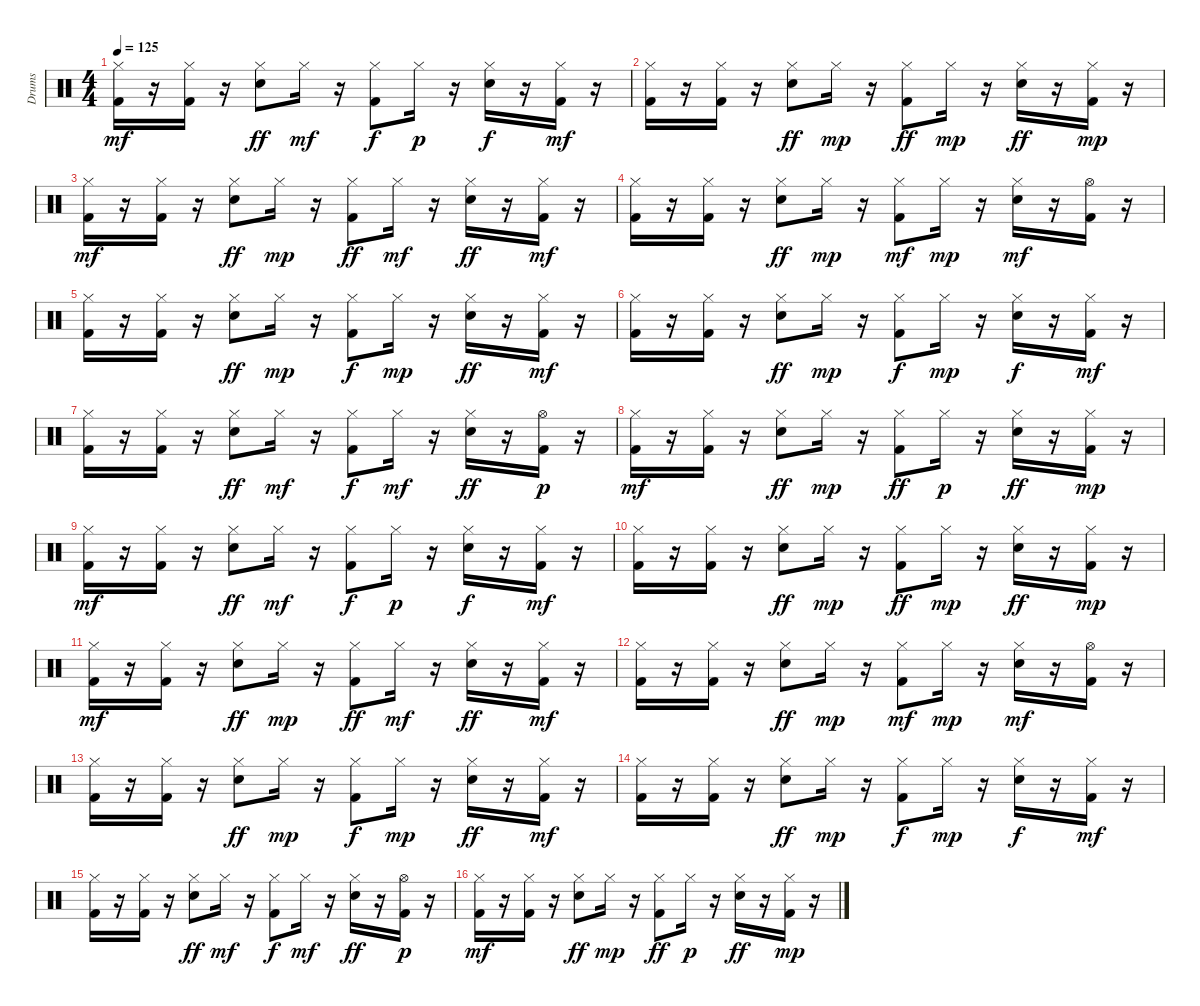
\track ("Drums" "Drums") {instrument percussion}
\staff {score}
\articulation defaults
\ts (4 4)
\tempo 125
\clef neutral
\ks c
("Hi-Hat (closed)" "Kick (hit) 2").16{dy mf} r.16 ("Hi-Hat (closed)" "Kick (hit) 2").16 r.16 ("Snare (hit) 2" "Hi-Hat (closed)").8{dy ff} "Hi-Hat (closed)".16{dy mf} r.16 ("Kick (hit) 2" "Hi-Hat (closed)").8{dy f} "Hi-Hat (closed)".16{dy p} r.16 ("Snare (hit) 2" "Hi-Hat (closed)").16{dy f} r.16 ("Hi-Hat (closed)" "Kick (hit) 2").16{dy mf} r.16 |
("Hi-Hat (closed)" "Kick (hit) 2").16 r.16 ("Hi-Hat (closed)" "Kick (hit) 2").16 r.16 ("Snare (hit) 2" "Hi-Hat (closed)").8{dy ff} "Hi-Hat (closed)".16{dy mp} r.16 ("Kick (hit) 2" "Hi-Hat (closed)").8{dy ff} "Hi-Hat (closed)".16{dy mp} r.16 ("Snare (hit) 2" "Hi-Hat (closed)").16{dy ff} r.16 ("Hi-Hat (closed)" "Kick (hit) 2").16{dy mp} r.16 |
("Hi-Hat (closed)" "Kick (hit) 2").16{dy mf} r.16 ("Hi-Hat (closed)" "Kick (hit) 2").16 r.16 ("Hi-Hat (closed)" "Snare (hit) 2").8{dy ff} "Hi-Hat (closed)".16{dy mp} r.16 ("Hi-Hat (closed)" "Kick (hit) 2").8{dy ff} "Hi-Hat (closed)".16{dy mf} r.16 ("Snare (hit) 2" "Hi-Hat (closed)").16{dy ff} r.16 ("Kick (hit) 2" "Hi-Hat (closed)").16{dy mf} r.16 |
("Hi-Hat (closed)" "Kick (hit) 2").16 r.16 ("Kick (hit) 2" "Hi-Hat (closed)").16 r.16 ("Hi-Hat (closed)" "Snare (hit) 2").8{dy ff} "Hi-Hat (closed)".16{dy mp} r.16 ("Kick (hit) 2" "Hi-Hat (closed)").8{dy mf} "Hi-Hat (closed)".16{dy mp} r.16 ("Snare (hit) 2" "Hi-Hat (closed)").16{dy mf} r.16 ("Hi-Hat (open)" "Kick (hit) 2").16 r.16 |
("Hi-Hat (closed)" "Kick (hit) 2").16 r.16 ("Hi-Hat (closed)" "Kick (hit) 2").16 r.16 ("Snare (hit) 2" "Hi-Hat (closed)").8{dy ff} "Hi-Hat (closed)".16{dy mp} r.16 ("Hi-Hat (closed)" "Kick (hit) 2").8{dy f} "Hi-Hat (closed)".16{dy mp} r.16 ("Hi-Hat (closed)" "Snare (hit) 2").16{dy ff} r.16 ("Hi-Hat (closed)" "Kick (hit) 2").16{dy mf} r.16 |
("Hi-Hat (closed)" "Kick (hit) 2").16 r.16 ("Hi-Hat (closed)" "Kick (hit) 2").16 r.16 ("Hi-Hat (closed)" "Snare (hit) 2").8{dy ff} "Hi-Hat (closed)".16{dy mp} r.16 ("Hi-Hat (closed)" "Kick (hit) 2").8{dy f} "Hi-Hat (closed)".16{dy mp} r.16 ("Snare (hit) 2" "Hi-Hat (closed)").16{dy f} r.16 ("Kick (hit) 2" "Hi-Hat (closed)").16{dy mf} r.16 |
("Hi-Hat (closed)" "Kick (hit) 2").16 r.16 ("Kick (hit) 2" "Hi-Hat (closed)").16 r.16 ("Snare (hit) 2" "Hi-Hat (closed)").8{dy ff} "Hi-Hat (closed)".16{dy mf} r.16 ("Kick (hit) 2" "Hi-Hat (closed)").8{dy f} "Hi-Hat (closed)".16{dy mf} r.16 ("Hi-Hat (closed)" "Snare (hit) 2").16{dy ff} r.16 ("Kick (hit) 2" "Hi-Hat (open)").16{dy p} r.16 |
("Hi-Hat (closed)" "Kick (hit) 2").16{dy mf} r.16 ("Kick (hit) 2" "Hi-Hat (closed)").16 r.16 ("Hi-Hat (closed)" "Snare (hit) 2").8{dy ff} "Hi-Hat (closed)".16{dy mp} r.16 ("Kick (hit) 2" "Hi-Hat (closed)").8{dy ff} "Hi-Hat (closed)".16{dy p} r.16 ("Hi-Hat (closed)" "Snare (hit) 2").16{dy ff} r.16 ("Hi-Hat (closed)" "Kick (hit) 2").16{dy mp} r.16 |
("Hi-Hat (closed)" "Kick (hit) 2").16{dy mf} r.16 ("Hi-Hat (closed)" "Kick (hit) 2").16 r.16 ("Snare (hit) 2" "Hi-Hat (closed)").8{dy ff} "Hi-Hat (closed)".16{dy mf} r.16 ("Kick (hit) 2" "Hi-Hat (closed)").8{dy f} "Hi-Hat (closed)".16{dy p} r.16 ("Snare (hit) 2" "Hi-Hat (closed)").16{dy f} r.16 ("Hi-Hat (closed)" "Kick (hit) 2").16{dy mf} r.16 |
("Hi-Hat (closed)" "Kick (hit) 2").16 r.16 ("Hi-Hat (closed)" "Kick (hit) 2").16 r.16 ("Snare (hit) 2" "Hi-Hat (closed)").8{dy ff} "Hi-Hat (closed)".16{dy mp} r.16 ("Kick (hit) 2" "Hi-Hat (closed)").8{dy ff} "Hi-Hat (closed)".16{dy mp} r.16 ("Snare (hit) 2" "Hi-Hat (closed)").16{dy ff} r.16 ("Hi-Hat (closed)" "Kick (hit) 2").16{dy mp} r.16 |
("Hi-Hat (closed)" "Kick (hit) 2").16{dy mf} r.16 ("Hi-Hat (closed)" "Kick (hit) 2").16 r.16 ("Hi-Hat (closed)" "Snare (hit) 2").8{dy ff} "Hi-Hat (closed)".16{dy mp} r.16 ("Hi-Hat (closed)" "Kick (hit) 2").8{dy ff} "Hi-Hat (closed)".16{dy mf} r.16 ("Snare (hit) 2" "Hi-Hat (closed)").16{dy ff} r.16 ("Kick (hit) 2" "Hi-Hat (closed)").16{dy mf} r.16 |
("Hi-Hat (closed)" "Kick (hit) 2").16 r.16 ("Kick (hit) 2" "Hi-Hat (closed)").16 r.16 ("Hi-Hat (closed)" "Snare (hit) 2").8{dy ff} "Hi-Hat (closed)".16{dy mp} r.16 ("Kick (hit) 2" "Hi-Hat (closed)").8{dy mf} "Hi-Hat (closed)".16{dy mp} r.16 ("Snare (hit) 2" "Hi-Hat (closed)").16{dy mf} r.16 ("Hi-Hat (open)" "Kick (hit) 2").16 r.16 |
("Hi-Hat (closed)" "Kick (hit) 2").16 r.16 ("Hi-Hat (closed)" "Kick (hit) 2").16 r.16 ("Snare (hit) 2" "Hi-Hat (closed)").8{dy ff} "Hi-Hat (closed)".16{dy mp} r.16 ("Hi-Hat (closed)" "Kick (hit) 2").8{dy f} "Hi-Hat (closed)".16{dy mp} r.16 ("Hi-Hat (closed)" "Snare (hit) 2").16{dy ff} r.16 ("Hi-Hat (closed)" "Kick (hit) 2").16{dy mf} r.16 |
("Hi-Hat (closed)" "Kick (hit) 2").16 r.16 ("Hi-Hat (closed)" "Kick (hit) 2").16 r.16 ("Hi-Hat (closed)" "Snare (hit) 2").8{dy ff} "Hi-Hat (closed)".16{dy mp} r.16 ("Hi-Hat (closed)" "Kick (hit) 2").8{dy f} "Hi-Hat (closed)".16{dy mp} r.16 ("Snare (hit) 2" "Hi-Hat (closed)").16{dy f} r.16 ("Kick (hit) 2" "Hi-Hat (closed)").16{dy mf} r.16 |
("Hi-Hat (closed)" "Kick (hit) 2").16 r.16 ("Kick (hit) 2" "Hi-Hat (closed)").16 r.16 ("Snare (hit) 2" "Hi-Hat (closed)").8{dy ff} "Hi-Hat (closed)".16{dy mf} r.16 ("Kick (hit) 2" "Hi-Hat (closed)").8{dy f} "Hi-Hat (closed)".16{dy mf} r.16 ("Hi-Hat (closed)" "Snare (hit) 2").16{dy ff} r.16 ("Kick (hit) 2" "Hi-Hat (open)").16{dy p} r.16 |
("Hi-Hat (closed)" "Kick (hit) 2").16{dy mf} r.16 ("Kick (hit) 2" "Hi-Hat (closed)").16 r.16 ("Hi-Hat (closed)" "Snare (hit) 2").8{dy ff} "Hi-Hat (closed)".16{dy mp} r.16 ("Kick (hit) 2" "Hi-Hat (closed)").8{dy ff} "Hi-Hat (closed)".16{dy p} r.16 ("Hi-Hat (closed)" "Snare (hit) 2").16{dy ff} r.16 ("Hi-Hat (closed)" "Kick (hit) 2").16{dy mp} r.16
